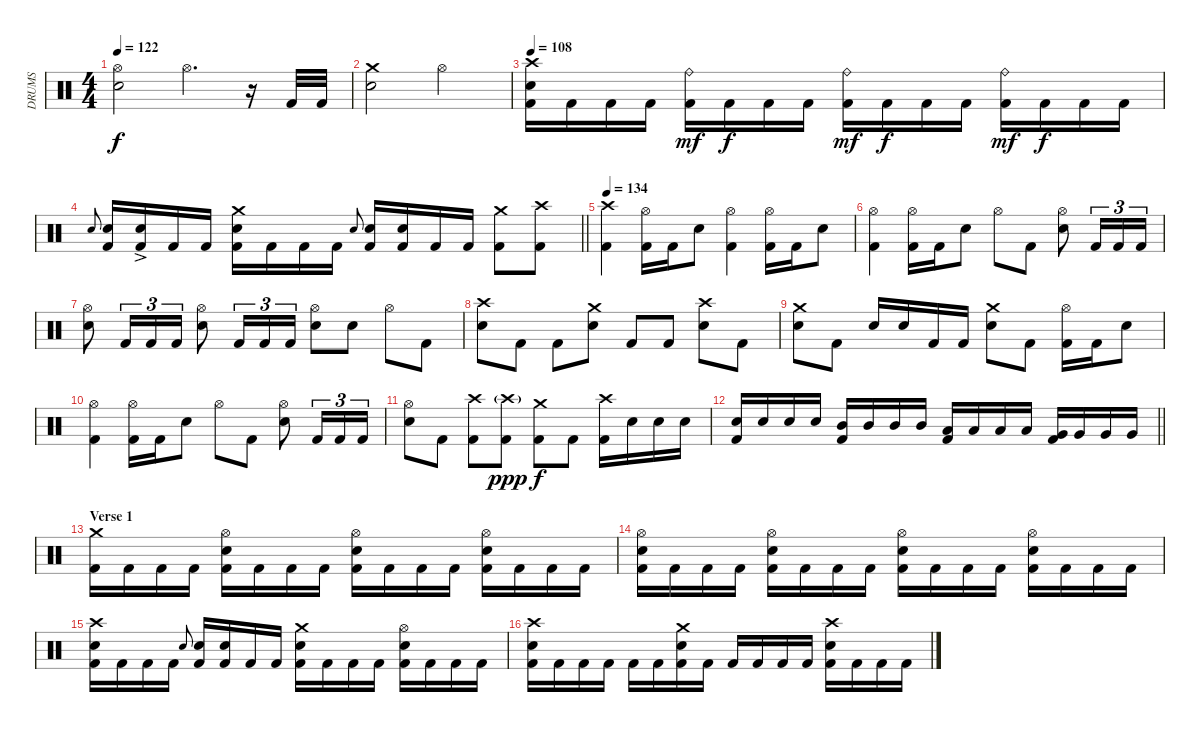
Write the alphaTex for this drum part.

\track ("DRUMS" "DRUMS") {instrument percussion}
\staff {score}
\articulation defaults
\ts (4 4)
\tempo 122
\clef neutral
\ks c
("Hi-Hat (open)" "Snare (hit) 2").2{dy f} "Hi-Hat (open)".4{d} r.16 "Kick (hit) 2".32 "Kick (hit) 2".32 |
("Crash medium (hit)" "Snare (hit) 2").2 "Hi-Hat (open)".2 |
\tempo 108
("Crash high (hit)" "Snare (hit) 2" "Kick (hit) 2").16 "Kick (hit) 2".16 "Kick (hit) 2".16 "Kick (hit) 2".16 ("Ride (bell)" "Kick (hit) 2").16{dy mf} "Kick (hit) 2".16{dy f} "Kick (hit) 2".16 "Kick (hit) 2".16 ("Ride (bell)" "Kick (hit) 2").16{dy mf} "Kick (hit) 2".16{dy f} "Kick (hit) 2".16 "Kick (hit) 2".16 ("Ride (bell)" "Kick (hit) 2").16{dy mf} "Kick (hit) 2".16{dy f} "Kick (hit) 2".16 "Kick (hit) 2".16 |
\barLineRight lightlight "Snare (hit) 2".8{gr onbeat}
("Snare (hit) 2" "Kick (hit) 2").16 ("Snare (hit) 2"{ac} "Kick (hit) 2").16 "Kick (hit) 2".16 "Kick (hit) 2".16 ("Crash medium (hit)" "Snare (hit) 2" "Kick (hit) 2").16 "Kick (hit) 2".16 "Kick (hit) 2".16 "Kick (hit) 2".16 "Snare (hit) 2".8{gr onbeat} ("Snare (hit) 2" "Kick (hit) 2").16 ("Snare (hit) 2" "Kick (hit) 2").16 "Kick (hit) 2".16 "Kick (hit) 2".16 ("Crash medium (hit)" "Kick (hit) 2").8 ("Crash high (hit)" "Kick (hit) 2").8 |
\tempo 134
("Crash high (hit)" "Kick (hit) 2").4 ("Hi-Hat (open)" "Kick (hit) 2").16 "Kick (hit) 2".16 "Snare (hit) 2".8 ("Hi-Hat (open)" "Kick (hit) 2").4 ("Hi-Hat (open)" "Kick (hit) 2").16 "Kick (hit) 2".16 "Snare (hit) 2".8 |
("Hi-Hat (open)" "Kick (hit) 2").4 ("Hi-Hat (open)" "Kick (hit) 2").16 "Kick (hit) 2".16 "Snare (hit) 2".8 "Hi-Hat (open)".8 "Kick (hit) 2".8 ("Hi-Hat (open)" "Snare (hit) 2").8 "Kick (hit) 2".16{tu (3 2)} "Kick (hit) 2".16{tu (3 2)} "Kick (hit) 2".16{tu (3 2)} |
("Hi-Hat (open)" "Snare (hit) 2").8 "Kick (hit) 2".16{tu (3 2)} "Kick (hit) 2".16{tu (3 2)} "Kick (hit) 2".16{tu (3 2)} ("Hi-Hat (open)" "Snare (hit) 2").8 "Kick (hit) 2".16{tu (3 2)} "Kick (hit) 2".16{tu (3 2)} "Kick (hit) 2".16{tu (3 2)} ("Hi-Hat (open)" "Snare (hit) 2").8 "Snare (hit) 2".8 "Hi-Hat (open)".8 "Kick (hit) 2".8 |
("Crash high (hit)" "Snare (hit) 2").8 "Kick (hit) 2".8 "Kick (hit) 2".8 ("Crash medium (hit)" "Snare (hit) 2").8 "Kick (hit) 2".8 "Kick (hit) 2".8 ("Crash high (hit)" "Snare (hit) 2").8 "Kick (hit) 2".8 |
("Crash medium (hit)" "Snare (hit) 2").8 "Kick (hit) 2".8 "Snare (hit) 2".16 "Snare (hit) 2".16 "Kick (hit) 2".16 "Kick (hit) 2".16 ("Crash medium (hit)" "Snare (hit) 2").8 "Kick (hit) 2".8 ("Hi-Hat (open)" "Kick (hit) 2").16 "Kick (hit) 2".16 "Snare (hit) 2".8 |
("Hi-Hat (open)" "Kick (hit) 2").4 ("Hi-Hat (open)" "Kick (hit) 2").16 "Kick (hit) 2".16 "Snare (hit) 2".8 "Hi-Hat (open)".8 "Kick (hit) 2".8 ("Hi-Hat (open)" "Snare (hit) 2").8 "Kick (hit) 2".16{tu (3 2)} "Kick (hit) 2".16{tu (3 2)} "Kick (hit) 2".16{tu (3 2)} |
("Hi-Hat (open)" "Snare (hit) 2").8 "Kick (hit) 2".8 ("Crash high (hit)" "Kick (hit) 2").8 ("Crash high (hit)"{g} "Kick (hit) 2").8{dy ppp} ("Crash medium (hit)" "Kick (hit) 2").8{dy f} "Kick (hit) 2".8 ("Crash high (hit)" "Kick (hit) 2").16 "Snare (hit) 2".16 "Snare (hit) 2".16 "Snare (hit) 2".16 |
\barLineRight lightlight
("Snare (hit) 2" "Kick (hit) 2").16 "Snare (hit) 2".16 "Snare (hit) 2".16 "Snare (hit) 2".16 ("Mid Tom (hit)" "Kick (hit) 2").16 "Mid Tom (hit)".16 "Mid Tom (hit)".16 "Mid Tom (hit)".16 ("Low Tom (hit)" "Kick (hit) 2").16 "Low Tom (hit)".16 "Low Tom (hit)".16 "Low Tom (hit)".16 ("Very Low Tom (hit)" "Kick (hit) 2").16 "Very Low Tom (hit)".16 "Very Low Tom (hit)".16 "Very Low Tom (hit)".16 |
\section ("" "Verse 1")
("Crash medium (hit)" "Kick (hit) 2").16 "Kick (hit) 2".16 "Kick (hit) 2".16 "Kick (hit) 2".16 ("Hi-Hat (open)" "Snare (hit) 2" "Kick (hit) 2").16 "Kick (hit) 2".16 "Kick (hit) 2".16 "Kick (hit) 2".16 ("Hi-Hat (open)" "Snare (hit) 2" "Kick (hit) 2").16 "Kick (hit) 2".16 "Kick (hit) 2".16 "Kick (hit) 2".16 ("Hi-Hat (open)" "Snare (hit) 2" "Kick (hit) 2").16 "Kick (hit) 2".16 "Kick (hit) 2".16 "Kick (hit) 2".16 |
("Hi-Hat (open)" "Snare (hit) 2" "Kick (hit) 2").16 "Kick (hit) 2".16 "Kick (hit) 2".16 "Kick (hit) 2".16 ("Hi-Hat (open)" "Snare (hit) 2" "Kick (hit) 2").16 "Kick (hit) 2".16 "Kick (hit) 2".16 "Kick (hit) 2".16 ("Hi-Hat (open)" "Snare (hit) 2" "Kick (hit) 2").16 "Kick (hit) 2".16 "Kick (hit) 2".16 "Kick (hit) 2".16 ("Hi-Hat (open)" "Snare (hit) 2" "Kick (hit) 2").16 "Kick (hit) 2".16 "Kick (hit) 2".16 "Kick (hit) 2".16 |
("Crash high (hit)" "Snare (hit) 2" "Kick (hit) 2").16 "Kick (hit) 2".16 "Kick (hit) 2".16 "Kick (hit) 2".16 "Snare (hit) 2".8{gr onbeat} ("Snare (hit) 2" "Kick (hit) 2").16 ("Snare (hit) 2" "Kick (hit) 2").16 "Kick (hit) 2".16 "Kick (hit) 2".16 ("Crash medium (hit)" "Snare (hit) 2" "Kick (hit) 2").16 "Kick (hit) 2".16 "Kick (hit) 2".16 "Kick (hit) 2".16 ("Hi-Hat (open)" "Snare (hit) 2" "Kick (hit) 2").16 "Kick (hit) 2".16 "Kick (hit) 2".16 "Kick (hit) 2".16 |
("Crash high (hit)" "Snare (hit) 2" "Kick (hit) 2").16 "Kick (hit) 2".16 "Kick (hit) 2".16 "Kick (hit) 2".16 "Kick (hit) 2".16 "Kick (hit) 2".16 ("Crash medium (hit)" "Snare (hit) 2" "Kick (hit) 2").16 "Kick (hit) 2".16 "Kick (hit) 2".16 "Kick (hit) 2".16 "Kick (hit) 2".16 "Kick (hit) 2".16 ("Crash high (hit)" "Snare (hit) 2" "Kick (hit) 2").16 "Kick (hit) 2".16 "Kick (hit) 2".16 "Kick (hit) 2".16
